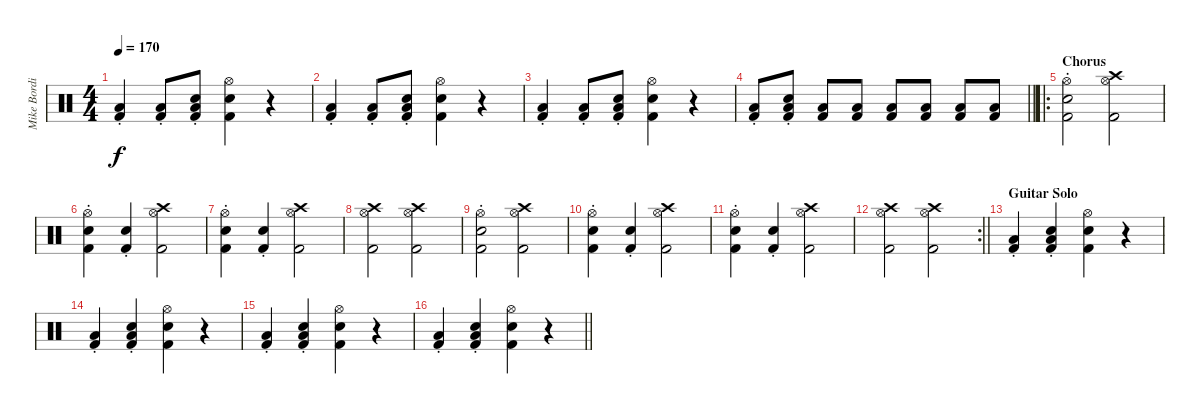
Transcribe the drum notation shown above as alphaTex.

\track ("Mike Bordin" "Mike Bordi") {instrument percussion}
\staff {score}
\articulation defaults
\ts (4 4)
\tempo 170
\clef neutral
\ks c
("Kick (hit) 2"{st} "Low Floor Tom (hit)").4{dy f volume 14} ("Kick (hit) 2"{st} "Low Floor Tom (hit)").8{volume 14} ("Snare (hit) 2" "Kick (hit) 2"{st} "Low Floor Tom (hit)").8 ("Hi-Hat (open)" "Snare (hit) 2" "Kick (hit) 2").4 r.4 |
("Kick (hit) 2"{st} "Low Floor Tom (hit)").4{volume 14} ("Kick (hit) 2"{st} "Low Floor Tom (hit)").8{volume 14} ("Snare (hit) 2" "Kick (hit) 2"{st} "Low Floor Tom (hit)").8 ("Hi-Hat (open)" "Snare (hit) 2" "Kick (hit) 2").4 r.4 |
("Kick (hit) 2"{st} "Low Floor Tom (hit)").4{volume 14} ("Kick (hit) 2"{st} "Low Floor Tom (hit)").8{volume 14} ("Snare (hit) 2" "Kick (hit) 2"{st} "Low Floor Tom (hit)").8 ("Hi-Hat (open)" "Snare (hit) 2" "Kick (hit) 2").4 r.4 |
\barLineRight lightlight
("Kick (hit) 2"{st} "Low Floor Tom (hit)").8{volume 14} ("Snare (hit) 2" "Kick (hit) 2"{st} "Low Floor Tom (hit)").8 ("Kick (hit) 2" "Low Floor Tom (hit)").8 ("Kick (hit) 2" "Low Floor Tom (hit)").8 ("Kick (hit) 2" "Low Floor Tom (hit)").8 ("Kick (hit) 2" "Low Floor Tom (hit)").8 ("Kick (hit) 2" "Low Floor Tom (hit)").8 ("Kick (hit) 2" "Low Floor Tom (hit)").8 |
\ro
\section ("" "Chorus")
("Hi-Hat (open)" "Snare (hit) 2" "Kick (hit) 2"{st}).2{volume 16} ("Hi-Hat (open)" "Crash high (hit)" "Kick (hit) 2").2 |
("Hi-Hat (open)" "Snare (hit) 2" "Kick (hit) 2"{st}).4 ("Snare (hit) 2" "Kick (hit) 2"{st}).4 ("Hi-Hat (open)" "Crash high (hit)" "Kick (hit) 2").2 |
("Hi-Hat (open)" "Snare (hit) 2" "Kick (hit) 2"{st}).4 ("Snare (hit) 2" "Kick (hit) 2"{st}).4 ("Hi-Hat (open)" "Crash high (hit)" "Kick (hit) 2").2 |
("Hi-Hat (open)" "Crash high (hit)" "Kick (hit) 2").2 ("Hi-Hat (open)" "Crash high (hit)" "Kick (hit) 2").2 |
("Hi-Hat (open)" "Snare (hit) 2" "Kick (hit) 2"{st}).2 ("Hi-Hat (open)" "Crash high (hit)" "Kick (hit) 2").2 |
("Hi-Hat (open)" "Snare (hit) 2" "Kick (hit) 2"{st}).4 ("Snare (hit) 2" "Kick (hit) 2"{st}).4 ("Hi-Hat (open)" "Crash high (hit)" "Kick (hit) 2").2 |
("Hi-Hat (open)" "Snare (hit) 2" "Kick (hit) 2"{st}).4 ("Snare (hit) 2" "Kick (hit) 2"{st}).4 ("Hi-Hat (open)" "Crash high (hit)" "Kick (hit) 2").2 |
\rc 2
\barLineRight lightlight
("Hi-Hat (open)" "Crash high (hit)" "Kick (hit) 2").2 ("Hi-Hat (open)" "Crash high (hit)" "Kick (hit) 2").2 |
\section ("" "Guitar Solo")
("Kick (hit) 2"{st} "Low Floor Tom (hit)").4{volume 10} ("Snare (hit) 2" "Kick (hit) 2"{st} "Low Floor Tom (hit)").4 ("Hi-Hat (open)" "Snare (hit) 2" "Kick (hit) 2").4 r.4 |
("Kick (hit) 2"{st} "Low Floor Tom (hit)").4 ("Snare (hit) 2" "Kick (hit) 2"{st} "Low Floor Tom (hit)").4 ("Hi-Hat (open)" "Snare (hit) 2" "Kick (hit) 2").4 r.4 |
("Kick (hit) 2"{st} "Low Floor Tom (hit)").4 ("Snare (hit) 2" "Kick (hit) 2"{st} "Low Floor Tom (hit)").4 ("Hi-Hat (open)" "Snare (hit) 2" "Kick (hit) 2").4 r.4 |
\barLineRight lightlight
("Kick (hit) 2"{st} "Low Floor Tom (hit)").4 ("Snare (hit) 2" "Kick (hit) 2"{st} "Low Floor Tom (hit)").4 ("Hi-Hat (open)" "Snare (hit) 2" "Kick (hit) 2").4 r.4
